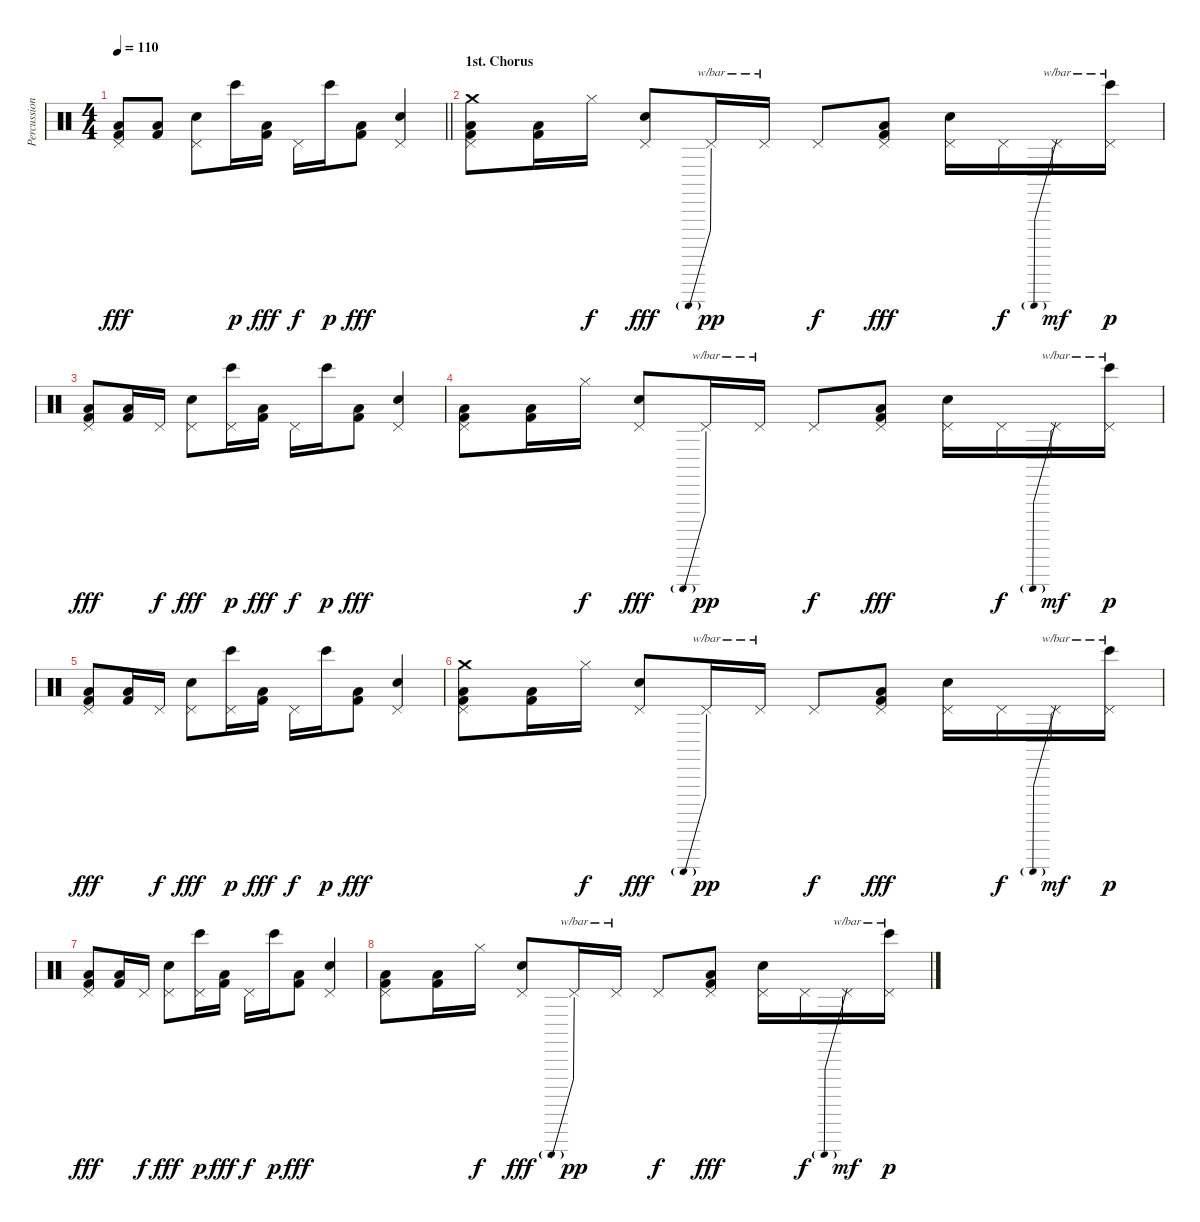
\track ("Percussion" "Percussion") {instrument percussion}
\staff {score}
\articulation defaults
\ts (4 4)
\tempo 110
\clef neutral
\barLineRight lightlight
\ks c
("Pedal Hi-Hat (hit)" "Kick (hit) 2" "Low Floor Tom (hit)"{be (hold 0 0 60 0)}).8{dy fff} ("Kick (hit) 2" "Low Floor Tom (hit)"{be (hold 0 0 60 0)}).8 ("Pedal Hi-Hat (hit)" "Hand Clap (hit)").8 "Bongo High (hit)".16{dy p} ("Kick (hit) 2" "Low Floor Tom (hit)"{be (hold 0 0 60 0)}).16{dy fff} "Pedal Hi-Hat (hit)".16{dy f} "Bongo High (hit)".16{dy p} ("Kick (hit) 2" "Low Floor Tom (hit)"{be (hold 0 0 60 0)}).8{dy fff} ("Pedal Hi-Hat (hit)" "Hand Clap (hit)").4 |
\section ("" "1st. Chorus")
("Crash medium (hit)" "Pedal Hi-Hat (hit)" "Kick (hit) 2" "Low Floor Tom (hit)"{be (hold 0 0 60 0)}).8 ("Kick (hit) 2" "Low Floor Tom (hit)"{be (hold 0 0 60 0)}).16 "Hi-Hat (closed)".16{dy f} ("Pedal Hi-Hat (hit)" "Hand Clap (hit)").8{dy fff} "Pedal Hi-Hat (hit)".16{tbe (predive default 0 -24 60 -24) dy pp} "Pedal Hi-Hat (hit)".16{tbe (hold default 0 -14 60 -14)} "Pedal Hi-Hat (hit)".8{dy f} ("Pedal Hi-Hat (hit)" "Kick (hit) 2" "Low Floor Tom (hit)"{be (hold 0 0 60 0)}).8{dy fff} ("Pedal Hi-Hat (hit)" "Hand Clap (hit)").16 "Pedal Hi-Hat (hit)".16{dy f} "Pedal Hi-Hat (hit)".16{tbe (predive default 0 -24 60 -24) dy mf} ("Pedal Hi-Hat (hit)" "Bongo High (hit)").16{tbe (hold default 0 -14 60 -14) dy p} |
("Pedal Hi-Hat (hit)" "Kick (hit) 2" "Low Floor Tom (hit)"{be (hold 0 0 60 0)}).8{dy fff} ("Kick (hit) 2" "Low Floor Tom (hit)"{be (hold 0 0 60 0)}).16 "Pedal Hi-Hat (hit)".16{dy f} ("Pedal Hi-Hat (hit)" "Hand Clap (hit)").8{dy fff} ("Pedal Hi-Hat (hit)" "Bongo High (hit)").16{dy p} ("Kick (hit) 2" "Low Floor Tom (hit)"{be (hold 0 0 60 0)}).16{dy fff} "Pedal Hi-Hat (hit)".16{dy f} "Bongo High (hit)".16{dy p} ("Kick (hit) 2" "Low Floor Tom (hit)"{be (hold 0 0 60 0)}).8{dy fff} ("Pedal Hi-Hat (hit)" "Hand Clap (hit)").4 |
("Pedal Hi-Hat (hit)" "Kick (hit) 2" "Low Floor Tom (hit)"{be (hold 0 0 60 0)}).8 ("Kick (hit) 2" "Low Floor Tom (hit)"{be (hold 0 0 60 0)}).16 "Hi-Hat (closed)".16{dy f} ("Pedal Hi-Hat (hit)" "Hand Clap (hit)").8{dy fff} "Pedal Hi-Hat (hit)".16{tbe (predive default 0 -24 60 -24) dy pp} "Pedal Hi-Hat (hit)".16{tbe (hold default 0 -14 60 -14)} "Pedal Hi-Hat (hit)".8{dy f} ("Pedal Hi-Hat (hit)" "Kick (hit) 2" "Low Floor Tom (hit)"{be (hold 0 0 60 0)}).8{dy fff} ("Pedal Hi-Hat (hit)" "Hand Clap (hit)").16 "Pedal Hi-Hat (hit)".16{dy f} "Pedal Hi-Hat (hit)".16{tbe (predive default 0 -24 60 -24) dy mf} ("Pedal Hi-Hat (hit)" "Bongo High (hit)").16{tbe (hold default 0 -14 60 -14) dy p} |
("Pedal Hi-Hat (hit)" "Kick (hit) 2" "Low Floor Tom (hit)"{be (hold 0 0 60 0)}).8{dy fff} ("Kick (hit) 2" "Low Floor Tom (hit)"{be (hold 0 0 60 0)}).16 "Pedal Hi-Hat (hit)".16{dy f} ("Pedal Hi-Hat (hit)" "Hand Clap (hit)").8{dy fff} ("Pedal Hi-Hat (hit)" "Bongo High (hit)").16{dy p} ("Kick (hit) 2" "Low Floor Tom (hit)"{be (hold 0 0 60 0)}).16{dy fff} "Pedal Hi-Hat (hit)".16{dy f} "Bongo High (hit)".16{dy p} ("Kick (hit) 2" "Low Floor Tom (hit)"{be (hold 0 0 60 0)}).8{dy fff} ("Pedal Hi-Hat (hit)" "Hand Clap (hit)").4 |
("Crash medium (hit)" "Pedal Hi-Hat (hit)" "Kick (hit) 2" "Low Floor Tom (hit)"{be (hold 0 0 60 0)}).8 ("Kick (hit) 2" "Low Floor Tom (hit)"{be (hold 0 0 60 0)}).16 "Hi-Hat (closed)".16{dy f} ("Pedal Hi-Hat (hit)" "Hand Clap (hit)").8{dy fff} "Pedal Hi-Hat (hit)".16{tbe (predive default 0 -24 60 -24) dy pp} "Pedal Hi-Hat (hit)".16{tbe (hold default 0 -14 60 -14)} "Pedal Hi-Hat (hit)".8{dy f} ("Pedal Hi-Hat (hit)" "Kick (hit) 2" "Low Floor Tom (hit)"{be (hold 0 0 60 0)}).8{dy fff} ("Pedal Hi-Hat (hit)" "Hand Clap (hit)").16 "Pedal Hi-Hat (hit)".16{dy f} "Pedal Hi-Hat (hit)".16{tbe (predive default 0 -24 60 -24) dy mf} ("Pedal Hi-Hat (hit)" "Bongo High (hit)").16{tbe (hold default 0 -14 60 -14) dy p} |
("Pedal Hi-Hat (hit)" "Kick (hit) 2" "Low Floor Tom (hit)"{be (hold 0 0 60 0)}).8{dy fff} ("Kick (hit) 2" "Low Floor Tom (hit)"{be (hold 0 0 60 0)}).16 "Pedal Hi-Hat (hit)".16{dy f} ("Pedal Hi-Hat (hit)" "Hand Clap (hit)").8{dy fff} ("Pedal Hi-Hat (hit)" "Bongo High (hit)").16{dy p} ("Kick (hit) 2" "Low Floor Tom (hit)"{be (hold 0 0 60 0)}).16{dy fff} "Pedal Hi-Hat (hit)".16{dy f} "Bongo High (hit)".16{dy p} ("Kick (hit) 2" "Low Floor Tom (hit)"{be (hold 0 0 60 0)}).8{dy fff} ("Pedal Hi-Hat (hit)" "Hand Clap (hit)").4 |
("Pedal Hi-Hat (hit)" "Kick (hit) 2" "Low Floor Tom (hit)"{be (hold 0 0 60 0)}).8 ("Kick (hit) 2" "Low Floor Tom (hit)"{be (hold 0 0 60 0)}).16 "Hi-Hat (closed)".16{dy f} ("Pedal Hi-Hat (hit)" "Hand Clap (hit)").8{dy fff} "Pedal Hi-Hat (hit)".16{tbe (predive default 0 -24 60 -24) dy pp} "Pedal Hi-Hat (hit)".16{tbe (hold default 0 -14 60 -14)} "Pedal Hi-Hat (hit)".8{dy f} ("Pedal Hi-Hat (hit)" "Kick (hit) 2" "Low Floor Tom (hit)"{be (hold 0 0 60 0)}).8{dy fff} ("Pedal Hi-Hat (hit)" "Hand Clap (hit)").16 "Pedal Hi-Hat (hit)".16{dy f} "Pedal Hi-Hat (hit)".16{tbe (predive default 0 -24 60 -24) dy mf} ("Pedal Hi-Hat (hit)" "Bongo High (hit)").16{tbe (hold default 0 -14 60 -14) dy p}
